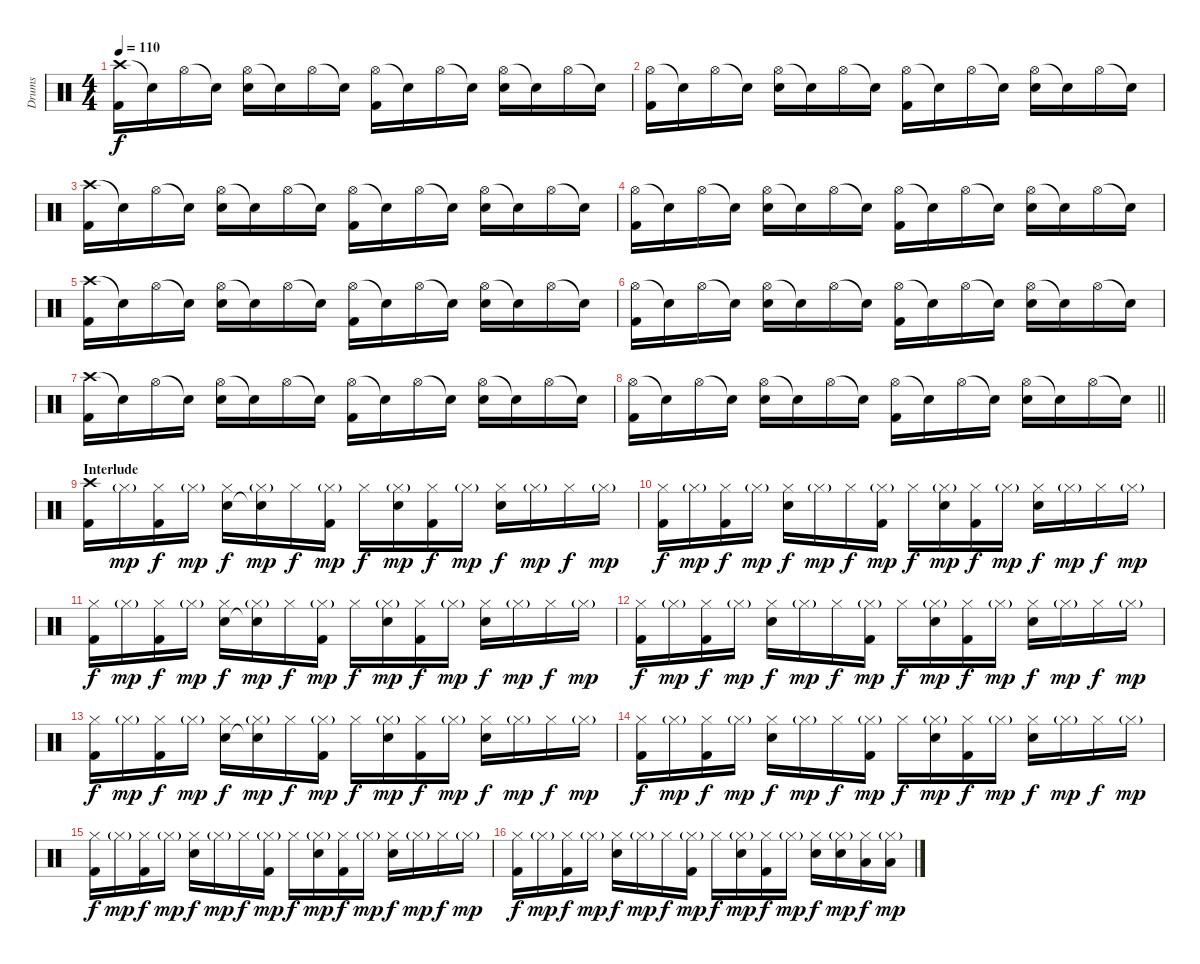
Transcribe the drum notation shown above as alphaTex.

\track ("Drums" "Drums") {instrument percussion}
\staff {score}
\articulation defaults
\ts (4 4)
\tempo 110
\clef neutral
\ks c
("Crash high (hit)" "Kick (hit) 2").16{dy f} "Snare (hit)"{t}.16 "Hi-Hat (open)".16 "Snare (hit)"{t}.16 ("Hi-Hat (open)" "Electric Snare (hit)").16 "Snare (hit)"{t}.16 "Hi-Hat (open)".16 "Snare (hit)"{t}.16 ("Hi-Hat (open)" "Kick (hit) 2").16 "Snare (hit)"{t}.16 "Hi-Hat (open)".16 "Snare (hit)"{t}.16 ("Hi-Hat (open)" "Electric Snare (hit)").16 "Snare (hit)"{t}.16 "Hi-Hat (open)".16 "Snare (hit)"{t}.16 |
("Hi-Hat (open)" "Kick (hit) 2").16 "Snare (hit)"{t}.16 "Hi-Hat (open)".16 "Snare (hit)"{t}.16 ("Hi-Hat (open)" "Electric Snare (hit)").16 "Snare (hit)"{t}.16 "Hi-Hat (open)".16 "Snare (hit)"{t}.16 ("Hi-Hat (open)" "Kick (hit) 2").16 "Snare (hit)"{t}.16 "Hi-Hat (open)".16 "Snare (hit)"{t}.16 ("Hi-Hat (open)" "Electric Snare (hit)").16 "Snare (hit)"{t}.16 "Hi-Hat (open)".16 "Snare (hit)"{t}.16 |
("Crash high (hit)" "Kick (hit) 2").16 "Snare (hit)"{t}.16 "Hi-Hat (open)".16 "Snare (hit)"{t}.16 ("Hi-Hat (open)" "Electric Snare (hit)").16 "Snare (hit)"{t}.16 "Hi-Hat (open)".16 "Snare (hit)"{t}.16 ("Hi-Hat (open)" "Kick (hit) 2").16 "Snare (hit)"{t}.16 "Hi-Hat (open)".16 "Snare (hit)"{t}.16 ("Hi-Hat (open)" "Electric Snare (hit)").16 "Snare (hit)"{t}.16 "Hi-Hat (open)".16 "Snare (hit)"{t}.16 |
("Hi-Hat (open)" "Kick (hit) 2").16 "Snare (hit)"{t}.16 "Hi-Hat (open)".16 "Snare (hit)"{t}.16 ("Hi-Hat (open)" "Electric Snare (hit)").16 "Snare (hit)"{t}.16 "Hi-Hat (open)".16 "Snare (hit)"{t}.16 ("Hi-Hat (open)" "Kick (hit) 2").16 "Snare (hit)"{t}.16 "Hi-Hat (open)".16 "Snare (hit)"{t}.16 ("Hi-Hat (open)" "Electric Snare (hit)").16 "Snare (hit)"{t}.16 "Hi-Hat (open)".16 "Snare (hit)"{t}.16 |
("Crash high (hit)" "Kick (hit) 2").16 "Snare (hit)"{t}.16 "Hi-Hat (open)".16 "Snare (hit)"{t}.16 ("Hi-Hat (open)" "Electric Snare (hit)").16 "Snare (hit)"{t}.16 "Hi-Hat (open)".16 "Snare (hit)"{t}.16 ("Hi-Hat (open)" "Kick (hit) 2").16 "Snare (hit)"{t}.16 "Hi-Hat (open)".16 "Snare (hit)"{t}.16 ("Hi-Hat (open)" "Electric Snare (hit)").16 "Snare (hit)"{t}.16 "Hi-Hat (open)".16 "Snare (hit)"{t}.16 |
("Hi-Hat (open)" "Kick (hit) 2").16 "Snare (hit)"{t}.16 "Hi-Hat (open)".16 "Snare (hit)"{t}.16 ("Hi-Hat (open)" "Electric Snare (hit)").16 "Snare (hit)"{t}.16 "Hi-Hat (open)".16 "Snare (hit)"{t}.16 ("Hi-Hat (open)" "Kick (hit) 2").16 "Snare (hit)"{t}.16 "Hi-Hat (open)".16 "Snare (hit)"{t}.16 ("Hi-Hat (open)" "Electric Snare (hit)").16 "Snare (hit)"{t}.16 "Hi-Hat (open)".16 "Snare (hit)"{t}.16 |
("Crash high (hit)" "Kick (hit) 2").16 "Snare (hit)"{t}.16 "Hi-Hat (open)".16 "Snare (hit)"{t}.16 ("Hi-Hat (open)" "Electric Snare (hit)").16 "Snare (hit)"{t}.16 "Hi-Hat (open)".16 "Snare (hit)"{t}.16 ("Hi-Hat (open)" "Kick (hit) 2").16 "Snare (hit)"{t}.16 "Hi-Hat (open)".16 "Snare (hit)"{t}.16 ("Hi-Hat (open)" "Electric Snare (hit)").16 "Snare (hit)"{t}.16 "Hi-Hat (open)".16 "Snare (hit)"{t}.16 |
\barLineRight lightlight
("Hi-Hat (open)" "Kick (hit) 2").16 "Snare (hit)"{t}.16 "Hi-Hat (open)".16 "Snare (hit)"{t}.16 ("Hi-Hat (open)" "Electric Snare (hit)").16 "Snare (hit)"{t}.16 "Hi-Hat (open)".16 "Snare (hit)"{t}.16 ("Hi-Hat (open)" "Kick (hit) 2").16 "Snare (hit)"{t}.16 "Hi-Hat (open)".16 "Snare (hit)"{t}.16 ("Hi-Hat (open)" "Electric Snare (hit)").16 "Snare (hit)"{t}.16 "Hi-Hat (open)".16 "Snare (hit)"{t}.16 |
\section ("" "Interlude")
("Crash high (hit)" "Kick (hit) 2").16 "Hi-Hat (closed)"{g}.16{dy mp} ("Hi-Hat (closed)" "Kick (hit) 2").16{dy f} "Hi-Hat (closed)"{g}.16{dy mp} ("Hi-Hat (closed)" "Electric Snare (hit)").16{dy f} ("Hi-Hat (closed)"{g} "Snare (hit)"{t}).16{dy mp} "Hi-Hat (closed)".16{dy f} ("Hi-Hat (closed)"{g} "Kick (hit) 2").16{dy mp} "Hi-Hat (closed)".16{dy f} ("Hi-Hat (closed)"{g} "Electric Snare (hit)").16{dy mp} ("Hi-Hat (closed)" "Kick (hit) 2").16{dy f} "Hi-Hat (closed)"{g}.16{dy mp} ("Hi-Hat (closed)" "Electric Snare (hit)").16{dy f} "Hi-Hat (closed)"{g}.16{dy mp} "Hi-Hat (closed)".16{dy f} "Hi-Hat (closed)"{g}.16{dy mp} |
("Hi-Hat (closed)" "Kick (hit) 2").16{dy f} "Hi-Hat (closed)"{g}.16{dy mp} ("Hi-Hat (closed)" "Kick (hit) 2").16{dy f} "Hi-Hat (closed)"{g}.16{dy mp} ("Hi-Hat (closed)" "Electric Snare (hit)").16{dy f} "Hi-Hat (closed)"{g}.16{dy mp} "Hi-Hat (closed)".16{dy f} ("Hi-Hat (closed)"{g} "Kick (hit) 2").16{dy mp} "Hi-Hat (closed)".16{dy f} ("Hi-Hat (closed)"{g} "Electric Snare (hit)").16{dy mp} ("Hi-Hat (closed)" "Kick (hit) 2").16{dy f} "Hi-Hat (closed)"{g}.16{dy mp} ("Hi-Hat (closed)" "Electric Snare (hit)").16{dy f} "Hi-Hat (closed)"{g}.16{dy mp} "Hi-Hat (closed)".16{dy f} "Hi-Hat (closed)"{g}.16{dy mp} |
("Hi-Hat (closed)" "Kick (hit) 2").16{dy f} "Hi-Hat (closed)"{g}.16{dy mp} ("Hi-Hat (closed)" "Kick (hit) 2").16{dy f} "Hi-Hat (closed)"{g}.16{dy mp} ("Hi-Hat (closed)" "Electric Snare (hit)").16{dy f} ("Hi-Hat (closed)"{g} "Snare (hit)"{t}).16{dy mp} "Hi-Hat (closed)".16{dy f} ("Hi-Hat (closed)"{g} "Kick (hit) 2").16{dy mp} "Hi-Hat (closed)".16{dy f} ("Hi-Hat (closed)"{g} "Electric Snare (hit)").16{dy mp} ("Hi-Hat (closed)" "Kick (hit) 2").16{dy f} "Hi-Hat (closed)"{g}.16{dy mp} ("Hi-Hat (closed)" "Electric Snare (hit)").16{dy f} "Hi-Hat (closed)"{g}.16{dy mp} "Hi-Hat (closed)".16{dy f} "Hi-Hat (closed)"{g}.16{dy mp} |
("Hi-Hat (closed)" "Kick (hit) 2").16{dy f} "Hi-Hat (closed)"{g}.16{dy mp} ("Hi-Hat (closed)" "Kick (hit) 2").16{dy f} "Hi-Hat (closed)"{g}.16{dy mp} ("Hi-Hat (closed)" "Electric Snare (hit)").16{dy f} "Hi-Hat (closed)"{g}.16{dy mp} "Hi-Hat (closed)".16{dy f} ("Hi-Hat (closed)"{g} "Kick (hit) 2").16{dy mp} "Hi-Hat (closed)".16{dy f} ("Hi-Hat (closed)"{g} "Electric Snare (hit)").16{dy mp} ("Hi-Hat (closed)" "Kick (hit) 2").16{dy f} "Hi-Hat (closed)"{g}.16{dy mp} ("Hi-Hat (closed)" "Electric Snare (hit)").16{dy f} "Hi-Hat (closed)"{g}.16{dy mp} "Hi-Hat (closed)".16{dy f} "Hi-Hat (closed)"{g}.16{dy mp} |
("Hi-Hat (closed)" "Kick (hit) 2").16{dy f} "Hi-Hat (closed)"{g}.16{dy mp} ("Hi-Hat (closed)" "Kick (hit) 2").16{dy f} "Hi-Hat (closed)"{g}.16{dy mp} ("Hi-Hat (closed)" "Electric Snare (hit)").16{dy f} ("Hi-Hat (closed)"{g} "Snare (hit)"{t}).16{dy mp} "Hi-Hat (closed)".16{dy f} ("Hi-Hat (closed)"{g} "Kick (hit) 2").16{dy mp} "Hi-Hat (closed)".16{dy f} ("Hi-Hat (closed)"{g} "Electric Snare (hit)").16{dy mp} ("Hi-Hat (closed)" "Kick (hit) 2").16{dy f} "Hi-Hat (closed)"{g}.16{dy mp} ("Hi-Hat (closed)" "Electric Snare (hit)").16{dy f} "Hi-Hat (closed)"{g}.16{dy mp} "Hi-Hat (closed)".16{dy f} "Hi-Hat (closed)"{g}.16{dy mp} |
("Hi-Hat (closed)" "Kick (hit) 2").16{dy f} "Hi-Hat (closed)"{g}.16{dy mp} ("Hi-Hat (closed)" "Kick (hit) 2").16{dy f} "Hi-Hat (closed)"{g}.16{dy mp} ("Hi-Hat (closed)" "Electric Snare (hit)").16{dy f} "Hi-Hat (closed)"{g}.16{dy mp} "Hi-Hat (closed)".16{dy f} ("Hi-Hat (closed)"{g} "Kick (hit) 2").16{dy mp} "Hi-Hat (closed)".16{dy f} ("Hi-Hat (closed)"{g} "Electric Snare (hit)").16{dy mp} ("Hi-Hat (closed)" "Kick (hit) 2").16{dy f} "Hi-Hat (closed)"{g}.16{dy mp} ("Hi-Hat (closed)" "Electric Snare (hit)").16{dy f} "Hi-Hat (closed)"{g}.16{dy mp} "Hi-Hat (closed)".16{dy f} "Hi-Hat (closed)"{g}.16{dy mp} |
("Hi-Hat (closed)" "Kick (hit) 2").16{dy f} "Hi-Hat (closed)"{g}.16{dy mp} ("Hi-Hat (closed)" "Kick (hit) 2").16{dy f} "Hi-Hat (closed)"{g}.16{dy mp} ("Hi-Hat (closed)" "Electric Snare (hit)").16{dy f} "Hi-Hat (closed)"{g}.16{dy mp} "Hi-Hat (closed)".16{dy f} ("Hi-Hat (closed)"{g} "Kick (hit) 2").16{dy mp} "Hi-Hat (closed)".16{dy f} ("Hi-Hat (closed)"{g} "Electric Snare (hit)").16{dy mp} ("Hi-Hat (closed)" "Kick (hit) 2").16{dy f} "Hi-Hat (closed)"{g}.16{dy mp} ("Hi-Hat (closed)" "Electric Snare (hit)").16{dy f} "Hi-Hat (closed)"{g}.16{dy mp} "Hi-Hat (closed)".16{dy f} "Hi-Hat (closed)"{g}.16{dy mp} |
("Hi-Hat (closed)" "Kick (hit) 2").16{dy f} "Hi-Hat (closed)"{g}.16{dy mp} ("Hi-Hat (closed)" "Kick (hit) 2").16{dy f} "Hi-Hat (closed)"{g}.16{dy mp} ("Hi-Hat (closed)" "Electric Snare (hit)").16{dy f} "Hi-Hat (closed)"{g}.16{dy mp} "Hi-Hat (closed)".16{dy f} ("Hi-Hat (closed)"{g} "Kick (hit) 2").16{dy mp} "Hi-Hat (closed)".16{dy f} ("Hi-Hat (closed)"{g} "Electric Snare (hit)").16{dy mp} ("Hi-Hat (closed)" "Kick (hit) 2").16{dy f} "Hi-Hat (closed)"{g}.16{dy mp} ("Hi-Hat (closed)" "Electric Snare (hit)").16{dy f} ("Hi-Hat (closed)"{g} "Electric Snare (hit)").16{dy mp} ("Hi-Hat (closed)" "Low Tom (hit)").16{dy f} ("Hi-Hat (closed)"{g} "Low Tom (hit)").16{dy mp}
